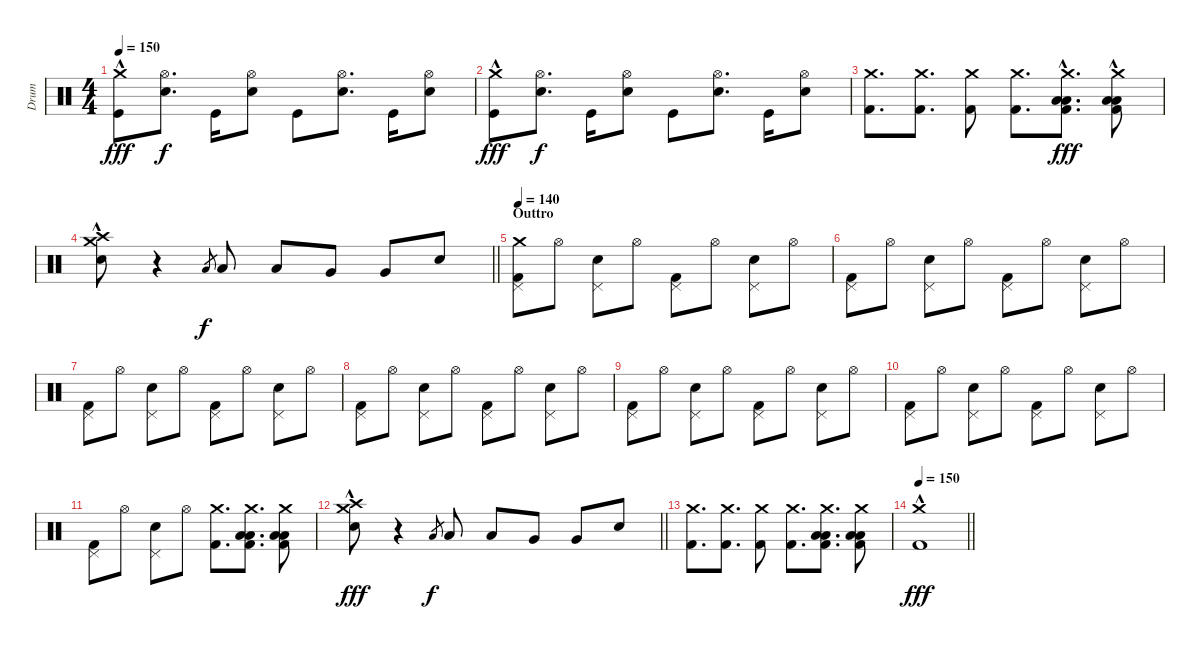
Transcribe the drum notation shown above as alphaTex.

\track ("Drum" "Drum") {instrument percussion}
\staff {score}
\articulation defaults
\ts (4 4)
\tempo 150
\clef neutral
\ks c
("Crash medium (hit)"{hac} "Kick (hit)").8{dy fff} ("Hi-Hat (open)" "Electric Snare (hit)").8{d dy f} "Kick (hit)".16 ("Hi-Hat (open)" "Electric Snare (hit)").8 "Kick (hit)".8 ("Hi-Hat (open)" "Electric Snare (hit)").8{d} "Kick (hit)".16 ("Hi-Hat (open)" "Electric Snare (hit)").8 |
("Crash medium (hit)"{hac} "Kick (hit)").8{dy fff} ("Hi-Hat (open)" "Electric Snare (hit)").8{d dy f} "Kick (hit)".16 ("Hi-Hat (open)" "Electric Snare (hit)").8 "Kick (hit)".8 ("Hi-Hat (open)" "Electric Snare (hit)").8{d} "Kick (hit)".16 ("Hi-Hat (open)" "Electric Snare (hit)").8 |
("Crash medium (hit)" "Kick (hit) 2").8{d} ("Crash medium (hit)" "Kick (hit) 2").8{d} ("Crash medium (hit)" "Kick (hit) 2").8 ("Crash medium (hit)" "Kick (hit) 2").8{d} ("Crash medium (hit)" "Low Tom (hit)" "Low Tom (hit)"{hac} "Kick (hit) 2").8{d dy fff} ("Crash medium (hit)" "Low Tom (hit)" "Low Tom (hit)"{hac} "Kick (hit) 2").8 |
\barLineRight lightlight
("Crash medium (hit)" "Crash high (hit)" "Electric Snare (hit)"{hac}).8 r.4 "Low Tom (hit)".8{gr dy f} "Low Tom (hit)".8 "Low Tom (hit)".8 "Very Low Tom (hit)".8 "Very Low Tom (hit)".8 "Electric Snare (hit)".8 |
\section ("" "Outtro")
\tempo 140
("Crash medium (hit)" "Pedal Hi-Hat (hit)" "Kick (hit) 2").8 "Hi-Hat (open)".8 ("Pedal Hi-Hat (hit)" "Electric Snare (hit)").8 "Hi-Hat (open)".8 ("Pedal Hi-Hat (hit)" "Kick (hit) 2").8 "Hi-Hat (open)".8 ("Pedal Hi-Hat (hit)" "Electric Snare (hit)").8 "Hi-Hat (open)".8 |
("Pedal Hi-Hat (hit)" "Kick (hit) 2").8 "Hi-Hat (open)".8 ("Pedal Hi-Hat (hit)" "Electric Snare (hit)").8 "Hi-Hat (open)".8 ("Pedal Hi-Hat (hit)" "Kick (hit) 2").8 "Hi-Hat (open)".8 ("Pedal Hi-Hat (hit)" "Electric Snare (hit)").8 "Hi-Hat (open)".8 |
("Pedal Hi-Hat (hit)" "Kick (hit) 2").8 "Hi-Hat (open)".8 ("Pedal Hi-Hat (hit)" "Electric Snare (hit)").8 "Hi-Hat (open)".8 ("Pedal Hi-Hat (hit)" "Kick (hit) 2").8 "Hi-Hat (open)".8 ("Pedal Hi-Hat (hit)" "Electric Snare (hit)").8 "Hi-Hat (open)".8 |
("Pedal Hi-Hat (hit)" "Kick (hit) 2").8 "Hi-Hat (open)".8 ("Pedal Hi-Hat (hit)" "Electric Snare (hit)").8 "Hi-Hat (open)".8 ("Pedal Hi-Hat (hit)" "Kick (hit) 2").8 "Hi-Hat (open)".8 ("Pedal Hi-Hat (hit)" "Electric Snare (hit)").8 "Hi-Hat (open)".8 |
("Pedal Hi-Hat (hit)" "Kick (hit) 2").8 "Hi-Hat (open)".8 ("Pedal Hi-Hat (hit)" "Electric Snare (hit)").8 "Hi-Hat (open)".8 ("Pedal Hi-Hat (hit)" "Kick (hit) 2").8 "Hi-Hat (open)".8 ("Pedal Hi-Hat (hit)" "Electric Snare (hit)").8 "Hi-Hat (open)".8 |
("Pedal Hi-Hat (hit)" "Kick (hit) 2").8 "Hi-Hat (open)".8 ("Pedal Hi-Hat (hit)" "Electric Snare (hit)").8 "Hi-Hat (open)".8 ("Pedal Hi-Hat (hit)" "Kick (hit) 2").8 "Hi-Hat (open)".8 ("Pedal Hi-Hat (hit)" "Electric Snare (hit)").8 "Hi-Hat (open)".8 |
("Pedal Hi-Hat (hit)" "Kick (hit) 2").8 "Hi-Hat (open)".8 ("Pedal Hi-Hat (hit)" "Electric Snare (hit)").8 "Hi-Hat (open)".8 ("Crash medium (hit)" "Kick (hit) 2").8{d} ("Crash medium (hit)" "Low Tom (hit)" "Low Tom (hit)" "Kick (hit) 2").8{d} ("Crash medium (hit)" "Low Tom (hit)" "Low Tom (hit)" "Kick (hit) 2").8 |
\barLineRight lightlight
("Crash medium (hit)" "Crash high (hit)" "Electric Snare (hit)"{hac}).8{dy fff} r.4 "Low Tom (hit)".8{gr dy f} "Low Tom (hit)".8 "Low Tom (hit)".8 "Very Low Tom (hit)".8 "Very Low Tom (hit)".8 "Electric Snare (hit)".8 |
("Crash medium (hit)" "Kick (hit) 2").8{d} ("Crash medium (hit)" "Kick (hit) 2").8{d} ("Crash medium (hit)" "Kick (hit) 2").8 ("Crash medium (hit)" "Kick (hit) 2").8{d} ("Crash medium (hit)" "Low Tom (hit)" "Low Tom (hit)" "Kick (hit) 2").8{d} ("Crash medium (hit)" "Low Tom (hit)" "Low Tom (hit)" "Kick (hit) 2").8 |
\tempo 150
\barLineRight lightlight
("Crash medium (hit)"{hac} "Kick (hit) 2"{hac}).1{dy fff}
